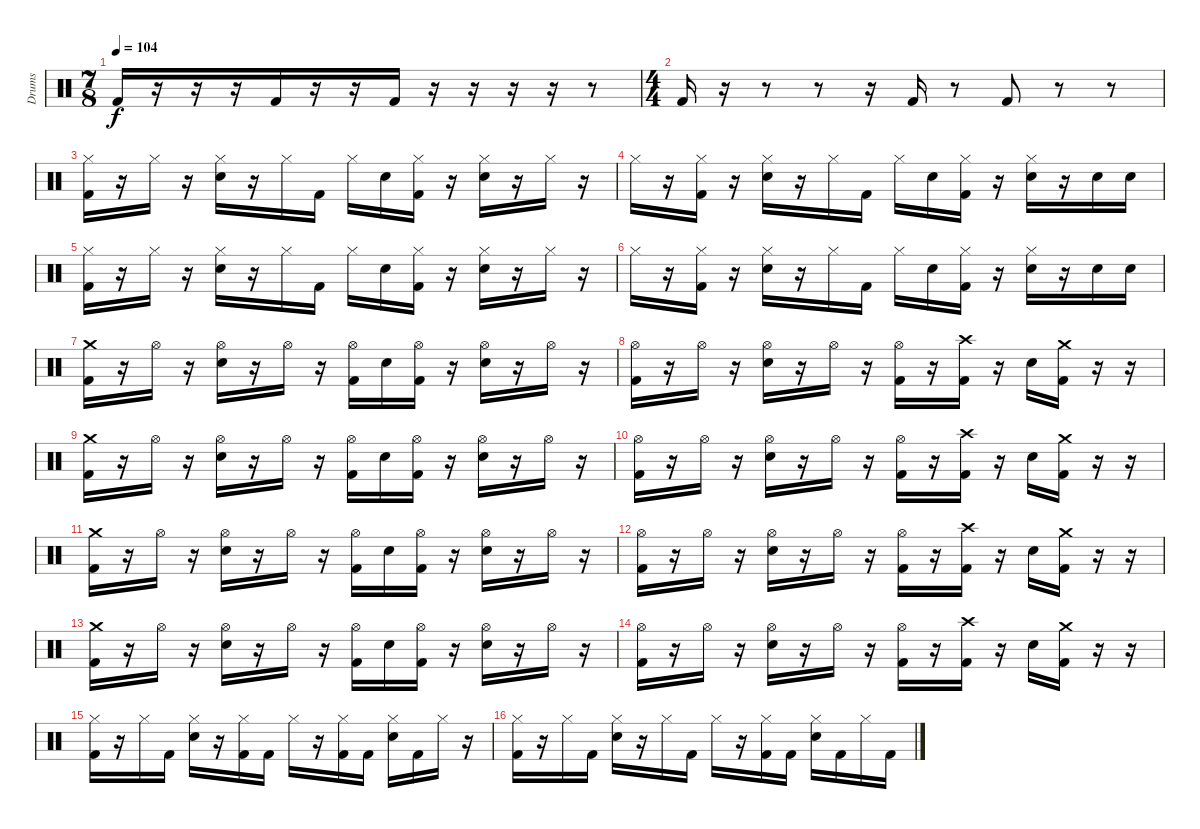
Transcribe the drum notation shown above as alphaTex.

\track ("Drums" "Drums") {instrument percussion}
\staff {score}
\articulation defaults
\ts (7 8)
\tempo 104
\clef neutral
\ks c "Kick (hit) 2".16{dy f}
r.16 r.16 r.16 "Kick (hit) 2".16 r.16 r.16 "Kick (hit) 2".16 r.16 r.16 r.16 r.16 r.8 |
\ts (4 4)
"Kick (hit) 2".16 r.16 r.8 r.8 r.16 "Kick (hit) 2".16 r.8 "Kick (hit) 2".8 r.8 r.8 |
("Hi-Hat (closed)" "Kick (hit) 2").16 r.16 "Hi-Hat (closed)".16 r.16 ("Hi-Hat (closed)" "Electric Snare (hit)").16 r.16 "Hi-Hat (closed)".16 "Kick (hit) 2".16 "Hi-Hat (closed)".16 "Electric Snare (hit)".16 ("Hi-Hat (closed)" "Kick (hit) 2").16 r.16 ("Hi-Hat (closed)" "Electric Snare (hit)").16 r.16 "Hi-Hat (closed)".16 r.16 |
"Hi-Hat (closed)".16 r.16 ("Hi-Hat (closed)" "Kick (hit) 2").16 r.16 ("Hi-Hat (closed)" "Electric Snare (hit)").16 r.16 "Hi-Hat (closed)".16 "Kick (hit) 2".16 "Hi-Hat (closed)".16 "Electric Snare (hit)".16 ("Hi-Hat (closed)" "Kick (hit) 2").16 r.16 ("Hi-Hat (closed)" "Electric Snare (hit)").16 r.16 "Electric Snare (hit)".16 "Electric Snare (hit)".16 |
("Hi-Hat (closed)" "Kick (hit) 2").16 r.16 "Hi-Hat (closed)".16 r.16 ("Hi-Hat (closed)" "Electric Snare (hit)").16 r.16 "Hi-Hat (closed)".16 "Kick (hit) 2".16 "Hi-Hat (closed)".16 "Electric Snare (hit)".16 ("Hi-Hat (closed)" "Kick (hit) 2").16 r.16 ("Hi-Hat (closed)" "Electric Snare (hit)").16 r.16 "Hi-Hat (closed)".16 r.16 |
"Hi-Hat (closed)".16 r.16 ("Hi-Hat (closed)" "Kick (hit) 2").16 r.16 ("Hi-Hat (closed)" "Electric Snare (hit)").16 r.16 "Hi-Hat (closed)".16 "Kick (hit) 2".16 "Hi-Hat (closed)".16 "Electric Snare (hit)".16 ("Hi-Hat (closed)" "Kick (hit) 2").16 r.16 ("Hi-Hat (closed)" "Electric Snare (hit)").16 r.16 "Electric Snare (hit)".16 "Electric Snare (hit)".16 |
("Crash medium (hit)" "Kick (hit) 2").16 r.16 "Hi-Hat (open)".16 r.16 ("Hi-Hat (open)" "Electric Snare (hit)").16 r.16 "Hi-Hat (open)".16 r.16 ("Hi-Hat (open)" "Kick (hit) 2").16 "Electric Snare (hit)".16 ("Hi-Hat (open)" "Kick (hit) 2").16 r.16 ("Hi-Hat (open)" "Electric Snare (hit)").16 r.16 "Hi-Hat (open)".16 r.16 |
("Hi-Hat (open)" "Kick (hit) 2").16 r.16 "Hi-Hat (open)".16 r.16 ("Hi-Hat (open)" "Electric Snare (hit)").16 r.16 "Hi-Hat (open)".16 r.16 ("Hi-Hat (open)" "Kick (hit) 2").16 r.16 ("Crash high (hit)" "Kick (hit) 2").16 r.16 "Electric Snare (hit)".16 ("Crash medium (hit)" "Kick (hit) 2").16 r.16 r.16 |
("Crash medium (hit)" "Kick (hit) 2").16 r.16 "Hi-Hat (open)".16 r.16 ("Hi-Hat (open)" "Electric Snare (hit)").16 r.16 "Hi-Hat (open)".16 r.16 ("Hi-Hat (open)" "Kick (hit) 2").16 "Electric Snare (hit)".16 ("Hi-Hat (open)" "Kick (hit) 2").16 r.16 ("Hi-Hat (open)" "Electric Snare (hit)").16 r.16 "Hi-Hat (open)".16 r.16 |
("Hi-Hat (open)" "Kick (hit) 2").16 r.16 "Hi-Hat (open)".16 r.16 ("Hi-Hat (open)" "Electric Snare (hit)").16 r.16 "Hi-Hat (open)".16 r.16 ("Hi-Hat (open)" "Kick (hit) 2").16 r.16 ("Crash high (hit)" "Kick (hit) 2").16 r.16 "Electric Snare (hit)".16 ("Crash medium (hit)" "Kick (hit) 2").16 r.16 r.16 |
("Crash medium (hit)" "Kick (hit) 2").16 r.16 "Hi-Hat (open)".16 r.16 ("Hi-Hat (open)" "Electric Snare (hit)").16 r.16 "Hi-Hat (open)".16 r.16 ("Hi-Hat (open)" "Kick (hit) 2").16 "Electric Snare (hit)".16 ("Hi-Hat (open)" "Kick (hit) 2").16 r.16 ("Hi-Hat (open)" "Electric Snare (hit)").16 r.16 "Hi-Hat (open)".16 r.16 |
("Hi-Hat (open)" "Kick (hit) 2").16 r.16 "Hi-Hat (open)".16 r.16 ("Hi-Hat (open)" "Electric Snare (hit)").16 r.16 "Hi-Hat (open)".16 r.16 ("Hi-Hat (open)" "Kick (hit) 2").16 r.16 ("Crash high (hit)" "Kick (hit) 2").16 r.16 "Electric Snare (hit)".16 ("Crash medium (hit)" "Kick (hit) 2").16 r.16 r.16 |
("Crash medium (hit)" "Kick (hit) 2").16 r.16 "Hi-Hat (open)".16 r.16 ("Hi-Hat (open)" "Electric Snare (hit)").16 r.16 "Hi-Hat (open)".16 r.16 ("Hi-Hat (open)" "Kick (hit) 2").16 "Electric Snare (hit)".16 ("Hi-Hat (open)" "Kick (hit) 2").16 r.16 ("Hi-Hat (open)" "Electric Snare (hit)").16 r.16 "Hi-Hat (open)".16 r.16 |
("Hi-Hat (open)" "Kick (hit) 2").16 r.16 "Hi-Hat (open)".16 r.16 ("Hi-Hat (open)" "Electric Snare (hit)").16 r.16 "Hi-Hat (open)".16 r.16 ("Hi-Hat (open)" "Kick (hit) 2").16 r.16 ("Crash high (hit)" "Kick (hit) 2").16 r.16 "Electric Snare (hit)".16 ("Crash medium (hit)" "Kick (hit) 2").16 r.16 r.16 |
("Hi-Hat (closed)" "Kick (hit) 2").16 r.16 "Hi-Hat (closed)".16 "Kick (hit) 2".16 ("Hi-Hat (closed)" "Electric Snare (hit)").16 r.16 ("Hi-Hat (closed)" "Kick (hit) 2").16 "Kick (hit) 2".16 "Hi-Hat (closed)".16 r.16 ("Hi-Hat (closed)" "Kick (hit) 2").16 "Kick (hit) 2".16 ("Hi-Hat (closed)" "Electric Snare (hit)").16 "Kick (hit) 2".16 "Hi-Hat (closed)".16 r.16 |
("Hi-Hat (closed)" "Kick (hit) 2").16 r.16 "Hi-Hat (closed)".16 "Kick (hit) 2".16 ("Hi-Hat (closed)" "Electric Snare (hit)").16 r.16 "Hi-Hat (closed)".16 "Kick (hit) 2".16 "Hi-Hat (closed)".16 r.16 ("Hi-Hat (closed)" "Kick (hit) 2").16 "Kick (hit) 2".16 ("Hi-Hat (closed)" "Electric Snare (hit)").16 "Kick (hit) 2".16 "Hi-Hat (closed)".16 "Kick (hit) 2".16
